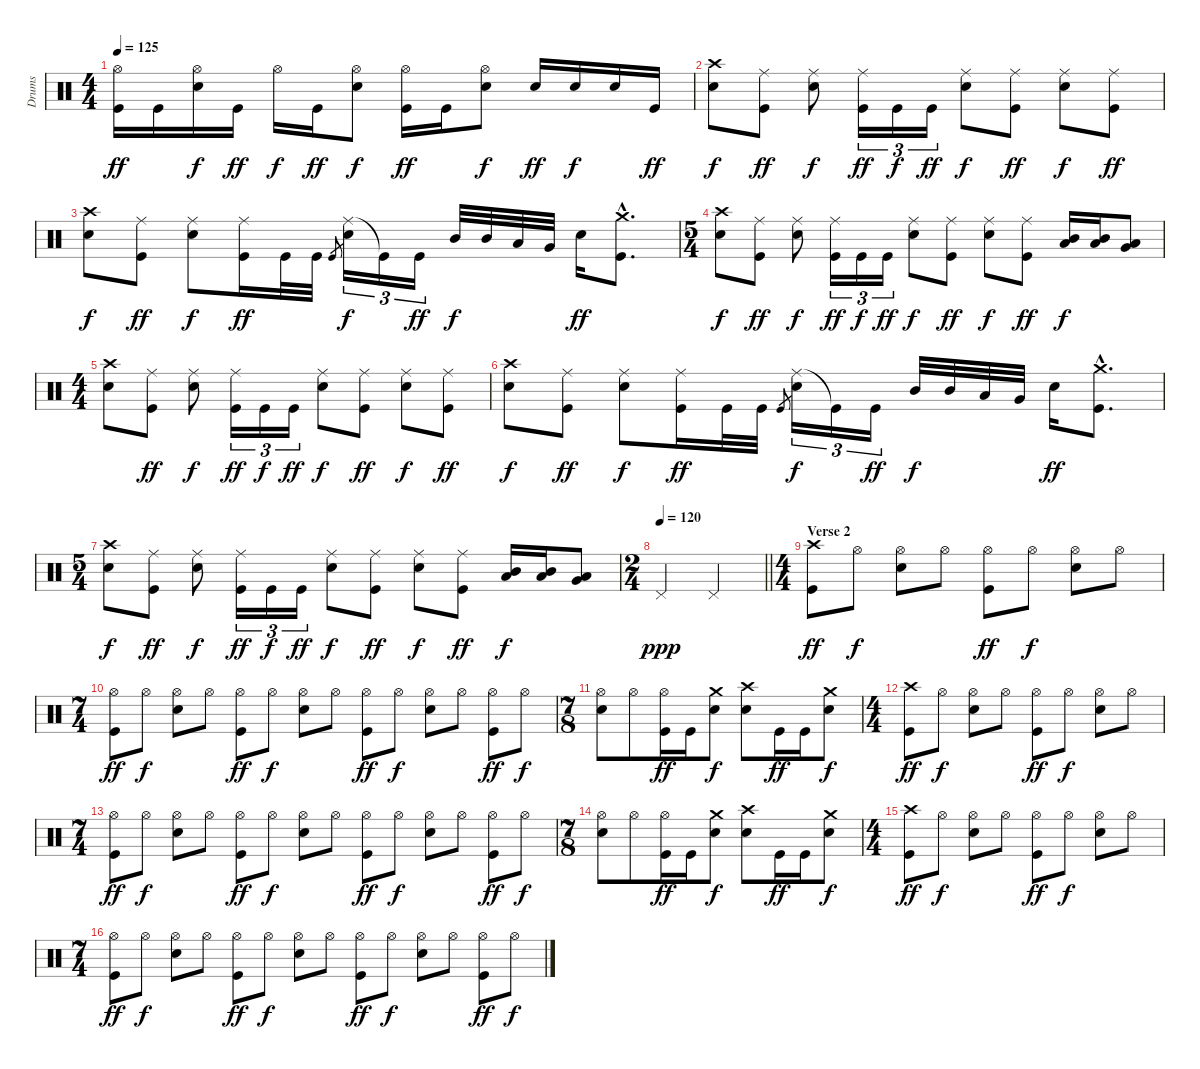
\track ("Drums" "Drums") {instrument percussion}
\staff {score}
\articulation defaults
\ts (4 4)
\tempo 125
\clef neutral
\ks c
("Hi-Hat (open)" "Kick (hit)").16{dy ff} "Kick (hit)".16 ("Hi-Hat (open)" "Snare (hit) 2").16{dy f} "Kick (hit)".16{dy ff} "Hi-Hat (open)".16{dy f} "Kick (hit)".16{dy ff} ("Hi-Hat (open)" "Snare (hit) 2").8{dy f} ("Hi-Hat (open)" "Kick (hit)").16{dy ff} "Kick (hit)".16 ("Hi-Hat (open)" "Snare (hit) 2").8{dy f} "Snare (hit) 2".16{dy ff} "Snare (hit) 2".16{dy f} "Snare (hit) 2".16 "Kick (hit)".16{dy ff} |
("Crash high (hit)" "Snare (hit) 2").8{dy f} ("Ride (middle)" "Kick (hit)").8{dy ff} ("Ride (middle)" "Snare (hit) 2").8{dy f} ("Ride (middle)" "Kick (hit)").16{tu (3 2) dy ff} "Kick (hit)".16{tu (3 2) dy f} "Kick (hit)".16{tu (3 2) dy ff} ("Ride (middle)" "Snare (hit) 2").8{dy f} ("Ride (middle)" "Kick (hit)").8{dy ff} ("Ride (middle)" "Snare (hit) 2").8{dy f} ("Ride (middle)" "Kick (hit)").8{dy ff} |
("Crash high (hit)" "Snare (hit) 2").8{dy f} ("Ride (middle)" "Kick (hit)").8{dy ff} ("Ride (middle)" "Snare (hit) 2").8{dy f} ("Ride (middle)" "Kick (hit)").16{dy ff} "Kick (hit)".32 "Kick (hit)".32 "Kick (hit)".8{gr} ("Ride (middle)" "Snare (hit) 2").16{tu (3 2) dy f} "Kick (hit)"{t}.16{tu (3 2)} "Kick (hit)".16{tu (3 2) dy ff} "Mid Tom (hit)".32{dy f} "Mid Tom (hit)".32 "Low Tom (hit)".32 "Very Low Tom (hit)".32 "Snare (hit) 2".16{dy ff} ("Crash medium (hit)"{hac} "Kick (hit)"{hac}).8{d} |
\ts (5 4)
("Crash high (hit)" "Snare (hit) 2").8{dy f} ("Ride (middle)" "Kick (hit)").8{dy ff} ("Ride (middle)" "Snare (hit) 2").8{dy f} ("Ride (middle)" "Kick (hit)").16{tu (3 2) dy ff} "Kick (hit)".16{tu (3 2) dy f} "Kick (hit)".16{tu (3 2) dy ff} ("Ride (middle)" "Snare (hit) 2").8{dy f} ("Ride (middle)" "Kick (hit)").8{dy ff} ("Ride (middle)" "Snare (hit) 2").8{dy f} ("Ride (middle)" "Kick (hit)").8{dy ff} ("Mid Tom (hit)" "Low Tom (hit)").16{dy f} ("Mid Tom (hit)" "Low Tom (hit)").16 ("Low Tom (hit)" "Very Low Tom (hit)").8 |
\ts (4 4)
("Crash high (hit)" "Snare (hit) 2").8 ("Ride (middle)" "Kick (hit)").8{dy ff} ("Ride (middle)" "Snare (hit) 2").8{dy f} ("Ride (middle)" "Kick (hit)").16{tu (3 2) dy ff} "Kick (hit)".16{tu (3 2) dy f} "Kick (hit)".16{tu (3 2) dy ff} ("Ride (middle)" "Snare (hit) 2").8{dy f} ("Ride (middle)" "Kick (hit)").8{dy ff} ("Ride (middle)" "Snare (hit) 2").8{dy f} ("Ride (middle)" "Kick (hit)").8{dy ff} |
("Crash high (hit)" "Snare (hit) 2").8{dy f} ("Ride (middle)" "Kick (hit)").8{dy ff} ("Ride (middle)" "Snare (hit) 2").8{dy f} ("Ride (middle)" "Kick (hit)").16{dy ff} "Kick (hit)".32 "Kick (hit)".32 "Kick (hit)".8{gr} ("Ride (middle)" "Snare (hit) 2").16{tu (3 2) dy f} "Kick (hit)"{t}.16{tu (3 2)} "Kick (hit)".16{tu (3 2) dy ff} "Mid Tom (hit)".32{dy f} "Mid Tom (hit)".32 "Low Tom (hit)".32 "Very Low Tom (hit)".32 "Snare (hit) 2".16{dy ff} ("Crash medium (hit)"{hac} "Kick (hit)"{hac}).8{d} |
\ts (5 4)
("Crash high (hit)" "Snare (hit) 2").8{dy f} ("Ride (middle)" "Kick (hit)").8{dy ff} ("Ride (middle)" "Snare (hit) 2").8{dy f} ("Ride (middle)" "Kick (hit)").16{tu (3 2) dy ff} "Kick (hit)".16{tu (3 2) dy f} "Kick (hit)".16{tu (3 2) dy ff} ("Ride (middle)" "Snare (hit) 2").8{dy f} ("Ride (middle)" "Kick (hit)").8{dy ff} ("Ride (middle)" "Snare (hit) 2").8{dy f} ("Ride (middle)" "Kick (hit)").8{dy ff} ("Mid Tom (hit)" "Low Tom (hit)").16{dy f} ("Mid Tom (hit)" "Low Tom (hit)").16 ("Low Tom (hit)" "Very Low Tom (hit)").8 |
\ts (2 4)
\tempo 120
\barLineRight lightlight "Pedal Hi-Hat (hit)".4{dy ppp} "Pedal Hi-Hat (hit)".4
|
\ts (4 4)
\section ("" "Verse 2")
("Crash high (hit)" "Kick (hit)").8{dy ff} "Hi-Hat (open)".8{dy f} ("Hi-Hat (open)" "Snare (hit) 2").8 "Hi-Hat (open)".8 ("Hi-Hat (open)" "Kick (hit)").8{dy ff} "Hi-Hat (open)".8{dy f} ("Hi-Hat (open)" "Snare (hit) 2").8 "Hi-Hat (open)".8 |
\ts (7 4)
("Hi-Hat (open)" "Kick (hit)").8{dy ff} "Hi-Hat (open)".8{dy f} ("Hi-Hat (open)" "Snare (hit) 2").8 "Hi-Hat (open)".8 ("Hi-Hat (open)" "Kick (hit)").8{dy ff} "Hi-Hat (open)".8{dy f} ("Hi-Hat (open)" "Snare (hit) 2").8 "Hi-Hat (open)".8 ("Hi-Hat (open)" "Kick (hit)").8{dy ff} "Hi-Hat (open)".8{dy f} ("Hi-Hat (open)" "Snare (hit) 2").8 "Hi-Hat (open)".8 ("Hi-Hat (open)" "Kick (hit)").8{dy ff} "Hi-Hat (open)".8{dy f} |
\ts (7 8)
("Hi-Hat (open)" "Snare (hit) 2").8 "Hi-Hat (open)".8 ("Hi-Hat (open)" "Kick (hit)").16{dy ff} "Kick (hit)".16 ("Crash medium (hit)" "Snare (hit) 2").8{dy f} ("Crash high (hit)" "Snare (hit) 2").8 "Kick (hit)".16{dy ff} "Kick (hit)".16 ("Crash medium (hit)" "Snare (hit) 2").8{dy f} |
\ts (4 4)
("Crash high (hit)" "Kick (hit)").8{dy ff} "Hi-Hat (open)".8{dy f} ("Hi-Hat (open)" "Snare (hit) 2").8 "Hi-Hat (open)".8 ("Hi-Hat (open)" "Kick (hit)").8{dy ff} "Hi-Hat (open)".8{dy f} ("Hi-Hat (open)" "Snare (hit) 2").8 "Hi-Hat (open)".8 |
\ts (7 4)
("Hi-Hat (open)" "Kick (hit)").8{dy ff} "Hi-Hat (open)".8{dy f} ("Hi-Hat (open)" "Snare (hit) 2").8 "Hi-Hat (open)".8 ("Hi-Hat (open)" "Kick (hit)").8{dy ff} "Hi-Hat (open)".8{dy f} ("Hi-Hat (open)" "Snare (hit) 2").8 "Hi-Hat (open)".8 ("Hi-Hat (open)" "Kick (hit)").8{dy ff} "Hi-Hat (open)".8{dy f} ("Hi-Hat (open)" "Snare (hit) 2").8 "Hi-Hat (open)".8 ("Hi-Hat (open)" "Kick (hit)").8{dy ff} "Hi-Hat (open)".8{dy f} |
\ts (7 8)
("Hi-Hat (open)" "Snare (hit) 2").8 "Hi-Hat (open)".8 ("Hi-Hat (open)" "Kick (hit)").16{dy ff} "Kick (hit)".16 ("Crash medium (hit)" "Snare (hit) 2").8{dy f} ("Crash high (hit)" "Snare (hit) 2").8 "Kick (hit)".16{dy ff} "Kick (hit)".16 ("Crash medium (hit)" "Snare (hit) 2").8{dy f} |
\ts (4 4)
("Crash high (hit)" "Kick (hit)").8{dy ff} "Hi-Hat (open)".8{dy f} ("Hi-Hat (open)" "Snare (hit) 2").8 "Hi-Hat (open)".8 ("Hi-Hat (open)" "Kick (hit)").8{dy ff} "Hi-Hat (open)".8{dy f} ("Hi-Hat (open)" "Snare (hit) 2").8 "Hi-Hat (open)".8 |
\ts (7 4)
("Hi-Hat (open)" "Kick (hit)").8{dy ff} "Hi-Hat (open)".8{dy f} ("Hi-Hat (open)" "Snare (hit) 2").8 "Hi-Hat (open)".8 ("Hi-Hat (open)" "Kick (hit)").8{dy ff} "Hi-Hat (open)".8{dy f} ("Hi-Hat (open)" "Snare (hit) 2").8 "Hi-Hat (open)".8 ("Hi-Hat (open)" "Kick (hit)").8{dy ff} "Hi-Hat (open)".8{dy f} ("Hi-Hat (open)" "Snare (hit) 2").8 "Hi-Hat (open)".8 ("Hi-Hat (open)" "Kick (hit)").8{dy ff} "Hi-Hat (open)".8{dy f}
